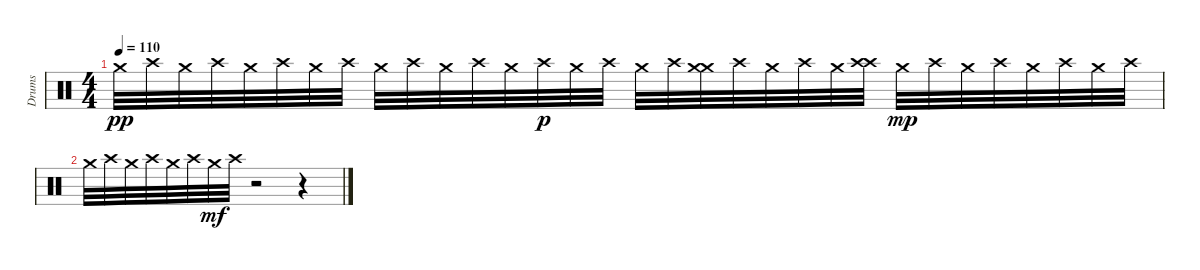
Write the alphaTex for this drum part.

\track ("Drums" "Drums") {instrument percussion}
\staff {score}
\articulation defaults
\ts (4 4)
\tempo 110
\clef neutral
\ks c "Crash medium (hit)".32{dy pp} "Crash high (hit)".32 "Crash medium (hit)".32 "Crash high (hit)".32 "Crash medium (hit)".32 "Crash high (hit)".32 "Crash medium (hit)".32 "Crash high (hit)".32 "Crash medium (hit)".32 "Crash high (hit)".32 "Crash medium (hit)".32 "Crash high (hit)".32 "Crash medium (hit)".32 "Crash high (hit)".32{dy p} "Crash medium (hit)".32 "Crash high (hit)".32 "Crash medium (hit)".32 "Crash high (hit)".32
("Crash medium (hit)" "Crash medium (hit)").32 "Crash high (hit)".32 "Crash medium (hit)".32 "Crash high (hit)".32 "Crash medium (hit)".32 ("Crash high (hit)" "Crash high (hit)").32 "Crash medium (hit)".32{dy mp} "Crash high (hit)".32 "Crash medium (hit)".32 "Crash high (hit)".32 "Crash medium (hit)".32 "Crash high (hit)".32 "Crash medium (hit)".32 "Crash high (hit)".32 |
"Crash medium (hit)".32 "Crash high (hit)".32 "Crash medium (hit)".32 "Crash high (hit)".32 "Crash medium (hit)".32 "Crash high (hit)".32 "Crash medium (hit)".32{dy mf} "Crash high (hit)".32 r.2 r.4
